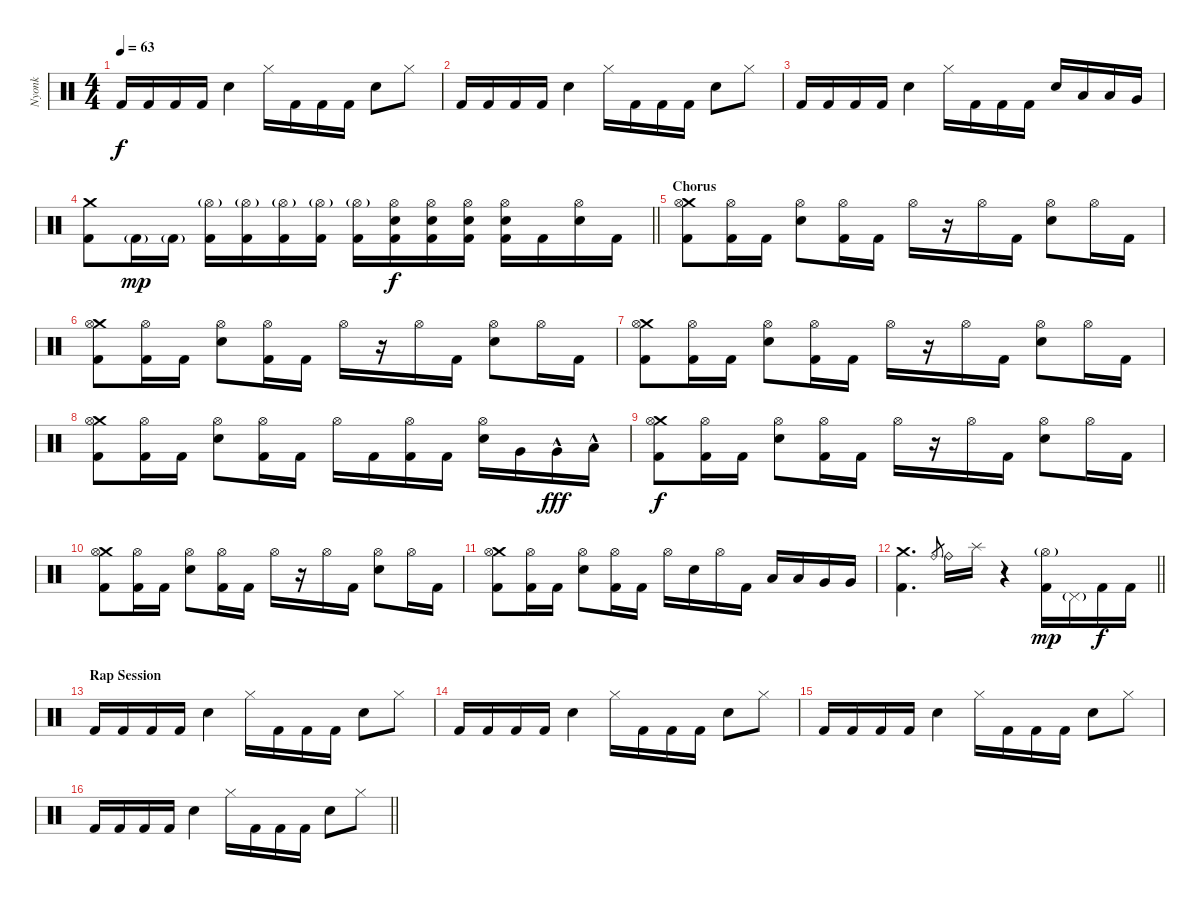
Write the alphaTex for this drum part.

\track ("Nyonk" "Nyonk") {instrument percussion}
\staff {score}
\articulation defaults
\ts (4 4)
\tempo 63
\clef neutral
\ks c "Kick (hit) 2".16{dy f} "Kick (hit) 2".16 "Kick (hit) 2".16 "Kick (hit) 2".16 "Electric Snare (hit)".4 "Hi-Hat (closed)".16 "Kick (hit) 2".16 "Kick (hit) 2".16 "Kick (hit) 2".16 "Electric Snare (hit)".8 "Hi-Hat (closed)".8
|
"Kick (hit) 2".16 "Kick (hit) 2".16 "Kick (hit) 2".16 "Kick (hit) 2".16 "Electric Snare (hit)".4 "Hi-Hat (closed)".16 "Kick (hit) 2".16 "Kick (hit) 2".16 "Kick (hit) 2".16 "Electric Snare (hit)".8 "Hi-Hat (closed)".8 |
"Kick (hit) 2".16 "Kick (hit) 2".16 "Kick (hit) 2".16 "Kick (hit) 2".16 "Electric Snare (hit)".4 "Hi-Hat (closed)".16 "Kick (hit) 2".16 "Kick (hit) 2".16 "Kick (hit) 2".16 "Electric Snare (hit)".16 "Low Tom (hit)".16 "Low Tom (hit)".16 "Very Low Tom (hit)".16 |
\barLineRight lightlight
("Crash medium (hit)" "Kick (hit) 2").8 "Kick (hit) 2"{g}.16{dy mp} "Kick (hit) 2"{g}.16 ("Hi-Hat (open)"{g} "Kick (hit) 2").16 ("Hi-Hat (open)"{g} "Kick (hit) 2").16 ("Hi-Hat (open)"{g} "Kick (hit) 2").16 ("Hi-Hat (open)"{g} "Kick (hit) 2").16 ("Hi-Hat (open)"{g} "Kick (hit) 2").16 ("Hi-Hat (open)" "Electric Snare (hit)" "Kick (hit) 2").16{dy f} ("Hi-Hat (open)" "Electric Snare (hit)" "Kick (hit) 2").16 ("Hi-Hat (open)" "Electric Snare (hit)" "Kick (hit) 2").16 ("Hi-Hat (open)" "Electric Snare (hit)" "Kick (hit) 2").16 "Kick (hit) 2".16 ("Hi-Hat (open)" "Electric Snare (hit)").16 "Kick (hit) 2".16 |
\section ("" "Chorus")
("Crash medium (hit)" "Hi-Hat (open)" "Kick (hit) 2").8 ("Hi-Hat (open)" "Kick (hit) 2").16 "Kick (hit) 2".16 ("Hi-Hat (open)" "Electric Snare (hit)").8 ("Hi-Hat (open)" "Kick (hit) 2").16 "Kick (hit) 2".16 "Hi-Hat (open)".16 r.16 "Hi-Hat (open)".16 "Kick (hit) 2".16 ("Hi-Hat (open)" "Electric Snare (hit)").8 "Hi-Hat (open)".16 "Kick (hit) 2".16 |
("Crash medium (hit)" "Hi-Hat (open)" "Kick (hit) 2").8 ("Hi-Hat (open)" "Kick (hit) 2").16 "Kick (hit) 2".16 ("Hi-Hat (open)" "Electric Snare (hit)").8 ("Hi-Hat (open)" "Kick (hit) 2").16 "Kick (hit) 2".16 "Hi-Hat (open)".16 r.16 "Hi-Hat (open)".16 "Kick (hit) 2".16 ("Hi-Hat (open)" "Electric Snare (hit)").8 "Hi-Hat (open)".16 "Kick (hit) 2".16 |
("Crash medium (hit)" "Hi-Hat (open)" "Kick (hit) 2").8 ("Hi-Hat (open)" "Kick (hit) 2").16 "Kick (hit) 2".16 ("Hi-Hat (open)" "Electric Snare (hit)").8 ("Hi-Hat (open)" "Kick (hit) 2").16 "Kick (hit) 2".16 "Hi-Hat (open)".16 r.16 "Hi-Hat (open)".16 "Kick (hit) 2".16 ("Hi-Hat (open)" "Electric Snare (hit)").8 "Hi-Hat (open)".16 "Kick (hit) 2".16 |
("Crash medium (hit)" "Hi-Hat (open)" "Kick (hit) 2").8 ("Hi-Hat (open)" "Kick (hit) 2").16 "Kick (hit) 2".16 ("Hi-Hat (open)" "Electric Snare (hit)").8 ("Hi-Hat (open)" "Kick (hit) 2").16 "Kick (hit) 2".16 "Hi-Hat (open)".16 "Kick (hit) 2".16 ("Hi-Hat (open)" "Kick (hit) 2").16 "Kick (hit) 2".16 ("Hi-Hat (open)" "Electric Snare (hit)").16 "Very Low Tom (hit)".16 "Very Low Tom (hit)"{hac}.16{dy fff} "Low Floor Tom (hit)"{hac}.16 |
("Crash medium (hit)" "Hi-Hat (open)" "Kick (hit) 2").8{dy f} ("Hi-Hat (open)" "Kick (hit) 2").16 "Kick (hit) 2".16 ("Hi-Hat (open)" "Electric Snare (hit)").8 ("Hi-Hat (open)" "Kick (hit) 2").16 "Kick (hit) 2".16 "Hi-Hat (open)".16 r.16 "Hi-Hat (open)".16 "Kick (hit) 2".16 ("Hi-Hat (open)" "Electric Snare (hit)").8 "Hi-Hat (open)".16 "Kick (hit) 2".16 |
("Crash medium (hit)" "Hi-Hat (open)" "Kick (hit) 2").8 ("Hi-Hat (open)" "Kick (hit) 2").16 "Kick (hit) 2".16 ("Hi-Hat (open)" "Electric Snare (hit)").8 ("Hi-Hat (open)" "Kick (hit) 2").16 "Kick (hit) 2".16 "Hi-Hat (open)".16 r.16 "Hi-Hat (open)".16 "Kick (hit) 2".16 ("Hi-Hat (open)" "Electric Snare (hit)").8 "Hi-Hat (open)".16 "Kick (hit) 2".16 |
("Crash medium (hit)" "Hi-Hat (open)" "Kick (hit) 2").8 ("Hi-Hat (open)" "Kick (hit) 2").16 "Kick (hit) 2".16 ("Hi-Hat (open)" "Electric Snare (hit)").8 ("Hi-Hat (open)" "Kick (hit) 2").16 "Kick (hit) 2".16 "Hi-Hat (open)".16 "Electric Snare (hit)".16 "Hi-Hat (open)".16 "Kick (hit) 2".16 "Low Tom (hit)".16 "Low Tom (hit)".16 "Very Low Tom (hit)".16 "Very Low Tom (hit)".16 |
\barLineRight lightlight
("Crash medium (hit)" "Kick (hit) 2").4{d} "Ride (bell)".8{gr} "Ride (bell)".16 "Splash (hit)".16 r.4 ("Hi-Hat (open)"{g} "Kick (hit) 2").16{dy mp} "Pedal Hi-Hat (hit)"{g}.16 "Kick (hit) 2".16{dy f} "Kick (hit) 2".16 |
\section ("" "Rap Session")
"Kick (hit) 2".16 "Kick (hit) 2".16 "Kick (hit) 2".16 "Kick (hit) 2".16 "Electric Snare (hit)".4 "Hi-Hat (closed)".16 "Kick (hit) 2".16 "Kick (hit) 2".16 "Kick (hit) 2".16 "Electric Snare (hit)".8 "Hi-Hat (closed)".8 |
"Kick (hit) 2".16 "Kick (hit) 2".16 "Kick (hit) 2".16 "Kick (hit) 2".16 "Electric Snare (hit)".4 "Hi-Hat (closed)".16 "Kick (hit) 2".16 "Kick (hit) 2".16 "Kick (hit) 2".16 "Electric Snare (hit)".8 "Hi-Hat (closed)".8 |
"Kick (hit) 2".16 "Kick (hit) 2".16 "Kick (hit) 2".16 "Kick (hit) 2".16 "Electric Snare (hit)".4 "Hi-Hat (closed)".16 "Kick (hit) 2".16 "Kick (hit) 2".16 "Kick (hit) 2".16 "Electric Snare (hit)".8 "Hi-Hat (closed)".8 |
\barLineRight lightlight "Kick (hit) 2".16 "Kick (hit) 2".16 "Kick (hit) 2".16 "Kick (hit) 2".16 "Electric Snare (hit)".4 "Hi-Hat (closed)".16 "Kick (hit) 2".16 "Kick (hit) 2".16 "Kick (hit) 2".16 "Electric Snare (hit)".8 "Hi-Hat (closed)".8
